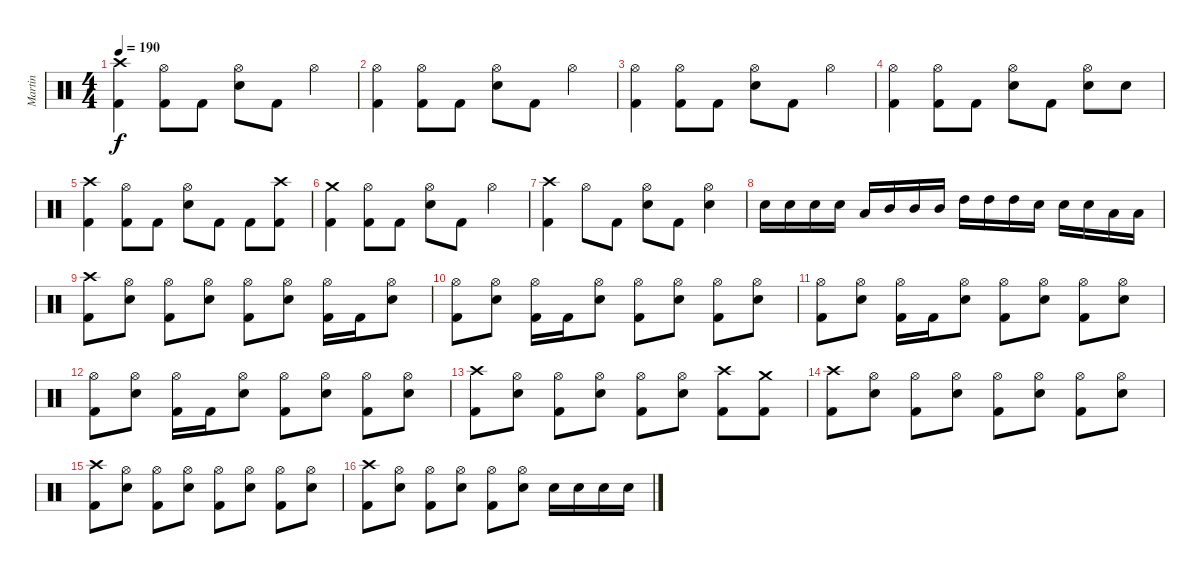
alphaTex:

\track ("Martin" "Martin") {instrument percussion}
\staff {score}
\articulation defaults
\ts (4 4)
\tempo 190
\clef neutral
\ks c
("Crash high (hit)" "Kick (hit) 2").4{dy f} ("Hi-Hat (open)" "Kick (hit) 2").8 "Kick (hit) 2".8 ("Hi-Hat (open)" "Snare (hit) 2").8 "Kick (hit) 2".8 "Hi-Hat (open)".4 |
("Hi-Hat (open)" "Kick (hit) 2").4 ("Hi-Hat (open)" "Kick (hit) 2").8 "Kick (hit) 2".8 ("Hi-Hat (open)" "Snare (hit) 2").8 "Kick (hit) 2".8 "Hi-Hat (open)".4 |
("Hi-Hat (open)" "Kick (hit) 2").4 ("Hi-Hat (open)" "Kick (hit) 2").8 "Kick (hit) 2".8 ("Hi-Hat (open)" "Snare (hit) 2").8 "Kick (hit) 2".8 "Hi-Hat (open)".4 |
("Hi-Hat (open)" "Kick (hit) 2").4 ("Hi-Hat (open)" "Kick (hit) 2").8 "Kick (hit) 2".8 ("Hi-Hat (open)" "Snare (hit) 2").8 "Kick (hit) 2".8 ("Hi-Hat (open)" "Snare (hit) 2").8 "Snare (hit) 2".8 |
("Crash high (hit)" "Kick (hit) 2").4 ("Hi-Hat (open)" "Kick (hit) 2").8 "Kick (hit) 2".8 ("Hi-Hat (open)" "Snare (hit) 2").8 "Kick (hit) 2".8 "Kick (hit) 2".8 ("Crash high (hit)" "Kick (hit) 2").8 |
("Crash medium (hit)" "Kick (hit) 2").4 ("Hi-Hat (open)" "Kick (hit) 2").8 "Kick (hit) 2".8 ("Hi-Hat (open)" "Snare (hit) 2").8 "Kick (hit) 2".8 "Hi-Hat (open)".4 |
("Crash high (hit)" "Kick (hit) 2").4 "Hi-Hat (open)".8 "Kick (hit) 2".8 ("Hi-Hat (open)" "Snare (hit) 2").8 "Kick (hit) 2".8 ("Hi-Hat (open)" "Snare (hit) 2").4 |
"Snare (hit) 2".16 "Snare (hit) 2".16 "Snare (hit) 2".16 "Snare (hit) 2".16 "Low Tom (hit)".16 "Mid Tom (hit)".16 "Mid Tom (hit)".16 "Mid Tom (hit)".16 "High Tom (hit)".16 "High Tom (hit)".16 "High Tom (hit)".16 "Snare (hit) 2".16 "Snare (hit) 2".16 "Snare (hit) 2".16 "Low Tom (hit)".16 "Low Tom (hit)".16 |
("Crash high (hit)" "Kick (hit) 2").8 ("Hi-Hat (open)" "Snare (hit) 2").8 ("Hi-Hat (open)" "Kick (hit) 2").8 ("Hi-Hat (open)" "Snare (hit) 2").8 ("Hi-Hat (open)" "Kick (hit) 2").8 ("Hi-Hat (open)" "Snare (hit) 2").8 ("Hi-Hat (open)" "Kick (hit) 2").16 "Kick (hit) 2".16 ("Hi-Hat (open)" "Snare (hit) 2").8 |
("Hi-Hat (open)" "Kick (hit) 2").8 ("Hi-Hat (open)" "Snare (hit) 2").8 ("Hi-Hat (open)" "Kick (hit) 2").16 "Kick (hit) 2".16 ("Hi-Hat (open)" "Snare (hit) 2").8 ("Hi-Hat (open)" "Kick (hit) 2").8 ("Hi-Hat (open)" "Snare (hit) 2").8 ("Hi-Hat (open)" "Kick (hit) 2").8 ("Hi-Hat (open)" "Snare (hit) 2").8 |
("Hi-Hat (open)" "Kick (hit) 2").8 ("Hi-Hat (open)" "Snare (hit) 2").8 ("Hi-Hat (open)" "Kick (hit) 2").16 "Kick (hit) 2".16 ("Hi-Hat (open)" "Snare (hit) 2").8 ("Hi-Hat (open)" "Kick (hit) 2").8 ("Hi-Hat (open)" "Snare (hit) 2").8 ("Hi-Hat (open)" "Kick (hit) 2").8 ("Hi-Hat (open)" "Snare (hit) 2").8 |
("Hi-Hat (open)" "Kick (hit) 2").8 ("Hi-Hat (open)" "Snare (hit) 2").8 ("Hi-Hat (open)" "Kick (hit) 2").16 "Kick (hit) 2".16 ("Hi-Hat (open)" "Snare (hit) 2").8 ("Hi-Hat (open)" "Kick (hit) 2").8 ("Hi-Hat (open)" "Snare (hit) 2").8 ("Hi-Hat (open)" "Kick (hit) 2").8 ("Hi-Hat (open)" "Snare (hit) 2").8 |
("Crash high (hit)" "Kick (hit) 2").8 ("Hi-Hat (open)" "Snare (hit) 2").8 ("Hi-Hat (open)" "Kick (hit) 2").8 ("Hi-Hat (open)" "Snare (hit) 2").8 ("Hi-Hat (open)" "Kick (hit) 2").8 ("Hi-Hat (open)" "Snare (hit) 2").8 ("Crash high (hit)" "Kick (hit) 2").8 ("Crash medium (hit)" "Kick (hit) 2").8 |
("Crash high (hit)" "Kick (hit) 2").8 ("Hi-Hat (open)" "Snare (hit) 2").8 ("Hi-Hat (open)" "Kick (hit) 2").8 ("Hi-Hat (open)" "Snare (hit) 2").8 ("Hi-Hat (open)" "Kick (hit) 2").8 ("Hi-Hat (open)" "Snare (hit) 2").8 ("Hi-Hat (open)" "Kick (hit) 2").8 ("Hi-Hat (open)" "Snare (hit) 2").8 |
("Crash high (hit)" "Kick (hit) 2").8 ("Hi-Hat (open)" "Snare (hit) 2").8 ("Hi-Hat (open)" "Kick (hit) 2").8 ("Hi-Hat (open)" "Snare (hit) 2").8 ("Hi-Hat (open)" "Kick (hit) 2").8 ("Hi-Hat (open)" "Snare (hit) 2").8 ("Hi-Hat (open)" "Kick (hit) 2").8 ("Hi-Hat (open)" "Snare (hit) 2").8 |
("Crash high (hit)" "Kick (hit) 2").8 ("Hi-Hat (open)" "Snare (hit) 2").8 ("Hi-Hat (open)" "Kick (hit) 2").8 ("Hi-Hat (open)" "Snare (hit) 2").8 ("Hi-Hat (open)" "Kick (hit) 2").8 ("Hi-Hat (open)" "Snare (hit) 2").8 "Snare (hit) 2".16 "Snare (hit) 2".16 "Snare (hit) 2".16 "Snare (hit) 2".16
